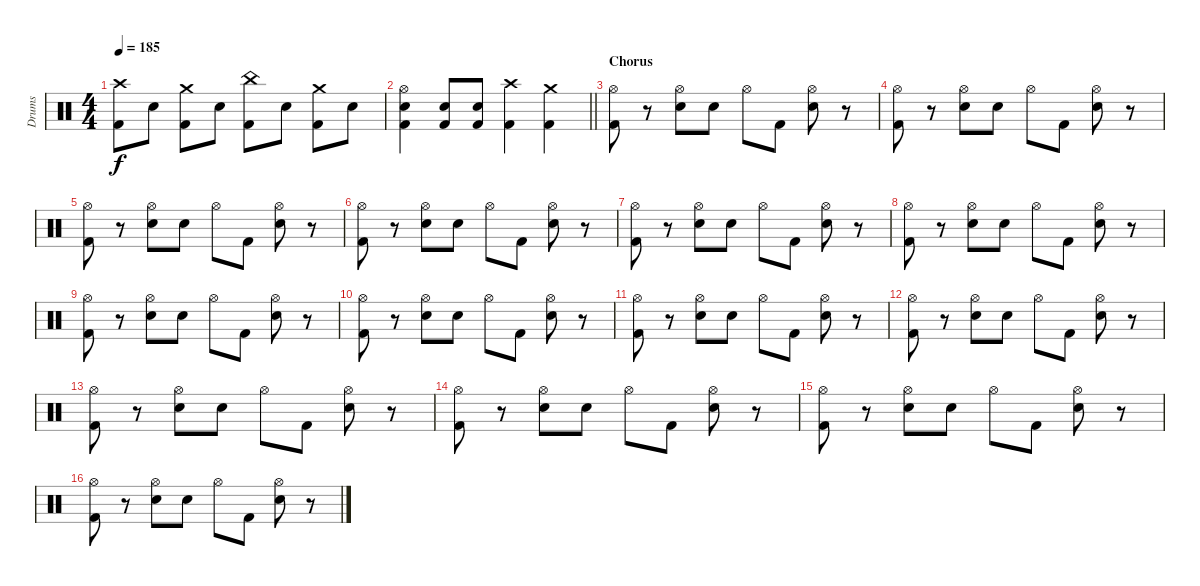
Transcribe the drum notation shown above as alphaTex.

\track ("Drums" "Drums") {instrument percussion}
\staff {score}
\articulation defaults
\ts (4 4)
\tempo 185
\clef neutral
\ks c
("Crash high (hit)" "Kick (hit) 2").8{dy f} "Snare (hit) 2".8 ("Crash medium (hit)" "Kick (hit) 2").8 "Snare (hit) 2".8 ("China (hit)" "Kick (hit) 2").8 "Snare (hit) 2".8 ("Crash medium (hit)" "Kick (hit) 2").8 "Snare (hit) 2".8 |
\barLineRight lightlight
("Hi-Hat (open)" "Snare (hit) 2" "Kick (hit) 2").4 ("Snare (hit) 2" "Kick (hit) 2").8 ("Snare (hit) 2" "Kick (hit) 2").8 ("Crash high (hit)" "Kick (hit) 2").4 ("Crash medium (hit)" "Kick (hit) 2").4 |
\section ("" "Chorus")
("Hi-Hat (open)" "Kick (hit) 2").8 r.8 ("Hi-Hat (open)" "Snare (hit) 2").8 "Snare (hit) 2".8 "Hi-Hat (open)".8 "Kick (hit) 2".8 ("Hi-Hat (open)" "Snare (hit) 2").8 r.8 |
("Hi-Hat (open)" "Kick (hit) 2").8 r.8 ("Hi-Hat (open)" "Snare (hit) 2").8 "Snare (hit) 2".8 "Hi-Hat (open)".8 "Kick (hit) 2".8 ("Hi-Hat (open)" "Snare (hit) 2").8 r.8 |
("Hi-Hat (open)" "Kick (hit) 2").8 r.8 ("Hi-Hat (open)" "Snare (hit) 2").8 "Snare (hit) 2".8 "Hi-Hat (open)".8 "Kick (hit) 2".8 ("Hi-Hat (open)" "Snare (hit) 2").8 r.8 |
("Hi-Hat (open)" "Kick (hit) 2").8 r.8 ("Hi-Hat (open)" "Snare (hit) 2").8 "Snare (hit) 2".8 "Hi-Hat (open)".8 "Kick (hit) 2".8 ("Hi-Hat (open)" "Snare (hit) 2").8 r.8 |
("Hi-Hat (open)" "Kick (hit) 2").8 r.8 ("Hi-Hat (open)" "Snare (hit) 2").8 "Snare (hit) 2".8 "Hi-Hat (open)".8 "Kick (hit) 2".8 ("Hi-Hat (open)" "Snare (hit) 2").8 r.8 |
("Hi-Hat (open)" "Kick (hit) 2").8 r.8 ("Hi-Hat (open)" "Snare (hit) 2").8 "Snare (hit) 2".8 "Hi-Hat (open)".8 "Kick (hit) 2".8 ("Hi-Hat (open)" "Snare (hit) 2").8 r.8 |
("Hi-Hat (open)" "Kick (hit) 2").8 r.8 ("Hi-Hat (open)" "Snare (hit) 2").8 "Snare (hit) 2".8 "Hi-Hat (open)".8 "Kick (hit) 2".8 ("Hi-Hat (open)" "Snare (hit) 2").8 r.8 |
("Hi-Hat (open)" "Kick (hit) 2").8 r.8 ("Hi-Hat (open)" "Snare (hit) 2").8 "Snare (hit) 2".8 "Hi-Hat (open)".8 "Kick (hit) 2".8 ("Hi-Hat (open)" "Snare (hit) 2").8 r.8 |
("Hi-Hat (open)" "Kick (hit) 2").8 r.8 ("Hi-Hat (open)" "Snare (hit) 2").8 "Snare (hit) 2".8 "Hi-Hat (open)".8 "Kick (hit) 2".8 ("Hi-Hat (open)" "Snare (hit) 2").8 r.8 |
("Hi-Hat (open)" "Kick (hit) 2").8 r.8 ("Hi-Hat (open)" "Snare (hit) 2").8 "Snare (hit) 2".8 "Hi-Hat (open)".8 "Kick (hit) 2".8 ("Hi-Hat (open)" "Snare (hit) 2").8 r.8 |
("Hi-Hat (open)" "Kick (hit) 2").8 r.8 ("Hi-Hat (open)" "Snare (hit) 2").8 "Snare (hit) 2".8 "Hi-Hat (open)".8 "Kick (hit) 2".8 ("Hi-Hat (open)" "Snare (hit) 2").8 r.8 |
("Hi-Hat (open)" "Kick (hit) 2").8 r.8 ("Hi-Hat (open)" "Snare (hit) 2").8 "Snare (hit) 2".8 "Hi-Hat (open)".8 "Kick (hit) 2".8 ("Hi-Hat (open)" "Snare (hit) 2").8 r.8 |
("Hi-Hat (open)" "Kick (hit) 2").8 r.8 ("Hi-Hat (open)" "Snare (hit) 2").8 "Snare (hit) 2".8 "Hi-Hat (open)".8 "Kick (hit) 2".8 ("Hi-Hat (open)" "Snare (hit) 2").8 r.8 |
("Hi-Hat (open)" "Kick (hit) 2").8 r.8 ("Hi-Hat (open)" "Snare (hit) 2").8 "Snare (hit) 2".8 "Hi-Hat (open)".8 "Kick (hit) 2".8 ("Hi-Hat (open)" "Snare (hit) 2").8 r.8
